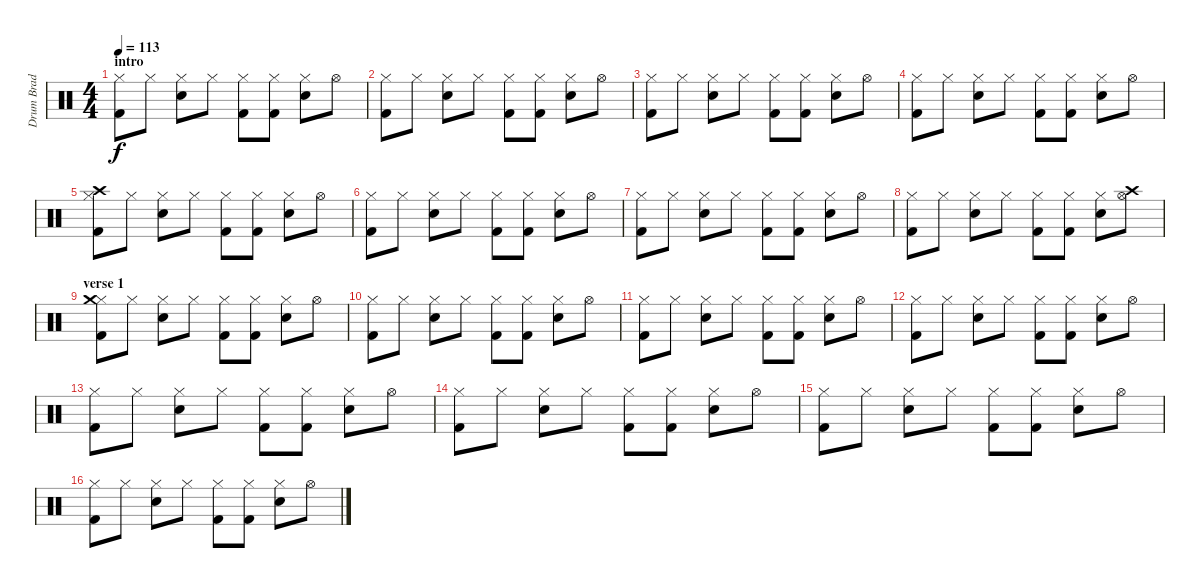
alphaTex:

\track ("Drum Brad Wilk" "Drum Brad ") {instrument percussion}
\staff {score}
\articulation defaults
\ts (4 4)
\section ("" "intro")
\tempo 113
\clef neutral
\ks c
("Hi-Hat (closed)" "Kick (hit) 2").8{dy f} "Hi-Hat (closed)".8 ("Hi-Hat (closed)" "Snare (hit) 2").8 "Hi-Hat (closed)".8 ("Hi-Hat (closed)" "Kick (hit) 2").8 ("Hi-Hat (closed)" "Kick (hit) 2").8 ("Hi-Hat (closed)" "Snare (hit) 2").8 "Hi-Hat (open)".8 |
("Hi-Hat (closed)" "Kick (hit) 2").8 "Hi-Hat (closed)".8 ("Hi-Hat (closed)" "Snare (hit) 2").8 "Hi-Hat (closed)".8 ("Hi-Hat (closed)" "Kick (hit) 2").8 ("Hi-Hat (closed)" "Kick (hit) 2").8 ("Hi-Hat (closed)" "Snare (hit) 2").8 "Hi-Hat (open)".8 |
("Hi-Hat (closed)" "Kick (hit) 2").8 "Hi-Hat (closed)".8 ("Hi-Hat (closed)" "Snare (hit) 2").8 "Hi-Hat (closed)".8 ("Hi-Hat (closed)" "Kick (hit) 2").8 ("Hi-Hat (closed)" "Kick (hit) 2").8 ("Hi-Hat (closed)" "Snare (hit) 2").8 "Hi-Hat (open)".8 |
("Hi-Hat (closed)" "Kick (hit) 2").8 "Hi-Hat (closed)".8 ("Hi-Hat (closed)" "Snare (hit) 2").8 "Hi-Hat (closed)".8 ("Hi-Hat (closed)" "Kick (hit) 2").8 ("Hi-Hat (closed)" "Kick (hit) 2").8 ("Hi-Hat (closed)" "Snare (hit) 2").8 "Hi-Hat (open)".8 |
("Hi-Hat (closed)" "Crash high (hit)" "Kick (hit) 2").8 "Hi-Hat (closed)".8 ("Hi-Hat (closed)" "Snare (hit) 2").8 "Hi-Hat (closed)".8 ("Hi-Hat (closed)" "Kick (hit) 2").8 ("Hi-Hat (closed)" "Kick (hit) 2").8 ("Hi-Hat (closed)" "Snare (hit) 2").8 "Hi-Hat (open)".8 |
("Hi-Hat (closed)" "Kick (hit) 2").8 "Hi-Hat (closed)".8 ("Hi-Hat (closed)" "Snare (hit) 2").8 "Hi-Hat (closed)".8 ("Hi-Hat (closed)" "Kick (hit) 2").8 ("Hi-Hat (closed)" "Kick (hit) 2").8 ("Hi-Hat (closed)" "Snare (hit) 2").8 "Hi-Hat (open)".8 |
("Hi-Hat (closed)" "Kick (hit) 2").8 "Hi-Hat (closed)".8 ("Hi-Hat (closed)" "Snare (hit) 2").8 "Hi-Hat (closed)".8 ("Hi-Hat (closed)" "Kick (hit) 2").8 ("Hi-Hat (closed)" "Kick (hit) 2").8 ("Hi-Hat (closed)" "Snare (hit) 2").8 "Hi-Hat (open)".8 |
("Hi-Hat (closed)" "Kick (hit) 2").8 "Hi-Hat (closed)".8 ("Hi-Hat (closed)" "Snare (hit) 2").8 "Hi-Hat (closed)".8 ("Hi-Hat (closed)" "Kick (hit) 2").8 ("Hi-Hat (closed)" "Kick (hit) 2").8 ("Hi-Hat (closed)" "Snare (hit) 2").8 ("Hi-Hat (open)" "Crash high (hit)").8 |
\section ("" "verse 1")
("Hi-Hat (closed)" "Crash medium (hit)" "Kick (hit) 2").8 "Hi-Hat (closed)".8 ("Hi-Hat (closed)" "Snare (hit) 2").8 "Hi-Hat (closed)".8 ("Hi-Hat (closed)" "Kick (hit) 2").8 ("Hi-Hat (closed)" "Kick (hit) 2").8 ("Hi-Hat (closed)" "Snare (hit) 2").8 "Hi-Hat (open)".8 |
("Hi-Hat (closed)" "Kick (hit) 2").8 "Hi-Hat (closed)".8 ("Hi-Hat (closed)" "Snare (hit) 2").8 "Hi-Hat (closed)".8 ("Hi-Hat (closed)" "Kick (hit) 2").8 ("Hi-Hat (closed)" "Kick (hit) 2").8 ("Hi-Hat (closed)" "Snare (hit) 2").8 "Hi-Hat (open)".8 |
("Hi-Hat (closed)" "Kick (hit) 2").8 "Hi-Hat (closed)".8 ("Hi-Hat (closed)" "Snare (hit) 2").8 "Hi-Hat (closed)".8 ("Hi-Hat (closed)" "Kick (hit) 2").8 ("Hi-Hat (closed)" "Kick (hit) 2").8 ("Hi-Hat (closed)" "Snare (hit) 2").8 "Hi-Hat (open)".8 |
("Hi-Hat (closed)" "Kick (hit) 2").8 "Hi-Hat (closed)".8 ("Hi-Hat (closed)" "Snare (hit) 2").8 "Hi-Hat (closed)".8 ("Hi-Hat (closed)" "Kick (hit) 2").8 ("Hi-Hat (closed)" "Kick (hit) 2").8 ("Hi-Hat (closed)" "Snare (hit) 2").8 "Hi-Hat (open)".8 |
("Hi-Hat (closed)" "Kick (hit) 2").8 "Hi-Hat (closed)".8 ("Hi-Hat (closed)" "Snare (hit) 2").8 "Hi-Hat (closed)".8 ("Hi-Hat (closed)" "Kick (hit) 2").8 ("Hi-Hat (closed)" "Kick (hit) 2").8 ("Hi-Hat (closed)" "Snare (hit) 2").8 "Hi-Hat (open)".8 |
("Hi-Hat (closed)" "Kick (hit) 2").8 "Hi-Hat (closed)".8 ("Hi-Hat (closed)" "Snare (hit) 2").8 "Hi-Hat (closed)".8 ("Hi-Hat (closed)" "Kick (hit) 2").8 ("Hi-Hat (closed)" "Kick (hit) 2").8 ("Hi-Hat (closed)" "Snare (hit) 2").8 "Hi-Hat (open)".8 |
("Hi-Hat (closed)" "Kick (hit) 2").8 "Hi-Hat (closed)".8 ("Hi-Hat (closed)" "Snare (hit) 2").8 "Hi-Hat (closed)".8 ("Hi-Hat (closed)" "Kick (hit) 2").8 ("Hi-Hat (closed)" "Kick (hit) 2").8 ("Hi-Hat (closed)" "Snare (hit) 2").8 "Hi-Hat (open)".8 |
("Hi-Hat (closed)" "Kick (hit) 2").8 "Hi-Hat (closed)".8 ("Hi-Hat (closed)" "Snare (hit) 2").8 "Hi-Hat (closed)".8 ("Hi-Hat (closed)" "Kick (hit) 2").8 ("Hi-Hat (closed)" "Kick (hit) 2").8 ("Hi-Hat (closed)" "Snare (hit) 2").8 "Hi-Hat (open)".8
